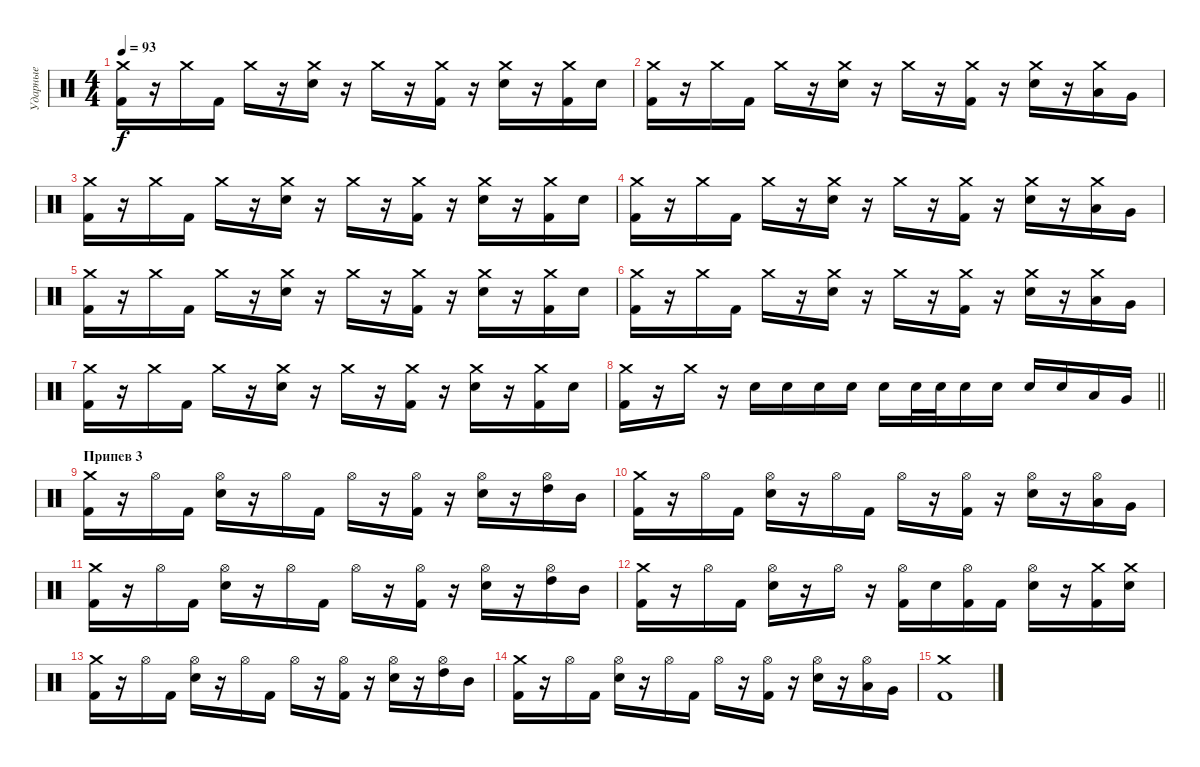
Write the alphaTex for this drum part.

\track ("Ударные" "Ударные") {instrument percussion}
\staff {score}
\articulation defaults
\ts (4 4)
\tempo 93
\clef neutral
\ks c
("Crash medium (hit)" "Kick (hit) 2").16{dy f} r.16 "Crash medium (hit)".16 "Kick (hit) 2".16 "Crash medium (hit)".16 r.16 ("Crash medium (hit)" "Electric Snare (hit)").16 r.16 "Crash medium (hit)".16 r.16 ("Crash medium (hit)" "Kick (hit) 2").16 r.16 ("Crash medium (hit)" "Electric Snare (hit)").16 r.16 ("Crash medium (hit)" "Kick (hit) 2").16 "Electric Snare (hit)".16 |
("Crash medium (hit)" "Kick (hit) 2").16 r.16 "Crash medium (hit)".16 "Kick (hit) 2".16 "Crash medium (hit)".16 r.16 ("Crash medium (hit)" "Electric Snare (hit)").16 r.16 "Crash medium (hit)".16 r.16 ("Crash medium (hit)" "Kick (hit) 2").16 r.16 ("Crash medium (hit)" "Electric Snare (hit)").16 r.16 ("Crash medium (hit)" "Low Tom (hit)").16 "Very Low Tom (hit)".16 |
("Crash medium (hit)" "Kick (hit) 2").16 r.16 "Crash medium (hit)".16 "Kick (hit) 2".16 "Crash medium (hit)".16 r.16 ("Crash medium (hit)" "Electric Snare (hit)").16 r.16 "Crash medium (hit)".16 r.16 ("Crash medium (hit)" "Kick (hit) 2").16 r.16 ("Crash medium (hit)" "Electric Snare (hit)").16 r.16 ("Crash medium (hit)" "Kick (hit) 2").16 "Electric Snare (hit)".16 |
("Crash medium (hit)" "Kick (hit) 2").16 r.16 "Crash medium (hit)".16 "Kick (hit) 2".16 "Crash medium (hit)".16 r.16 ("Crash medium (hit)" "Electric Snare (hit)").16 r.16 "Crash medium (hit)".16 r.16 ("Crash medium (hit)" "Kick (hit) 2").16 r.16 ("Crash medium (hit)" "Electric Snare (hit)").16 r.16 ("Crash medium (hit)" "Low Tom (hit)").16 "Very Low Tom (hit)".16 |
("Crash medium (hit)" "Kick (hit) 2").16 r.16 "Crash medium (hit)".16 "Kick (hit) 2".16 "Crash medium (hit)".16 r.16 ("Crash medium (hit)" "Electric Snare (hit)").16 r.16 "Crash medium (hit)".16 r.16 ("Crash medium (hit)" "Kick (hit) 2").16 r.16 ("Crash medium (hit)" "Electric Snare (hit)").16 r.16 ("Crash medium (hit)" "Kick (hit) 2").16 "Electric Snare (hit)".16 |
("Crash medium (hit)" "Kick (hit) 2").16 r.16 "Crash medium (hit)".16 "Kick (hit) 2".16 "Crash medium (hit)".16 r.16 ("Crash medium (hit)" "Electric Snare (hit)").16 r.16 "Crash medium (hit)".16 r.16 ("Crash medium (hit)" "Kick (hit) 2").16 r.16 ("Crash medium (hit)" "Electric Snare (hit)").16 r.16 ("Crash medium (hit)" "Low Tom (hit)").16 "Very Low Tom (hit)".16 |
("Crash medium (hit)" "Kick (hit) 2").16 r.16 "Crash medium (hit)".16 "Kick (hit) 2".16 "Crash medium (hit)".16 r.16 ("Crash medium (hit)" "Electric Snare (hit)").16 r.16 "Crash medium (hit)".16 r.16 ("Crash medium (hit)" "Kick (hit) 2").16 r.16 ("Crash medium (hit)" "Electric Snare (hit)").16 r.16 ("Crash medium (hit)" "Kick (hit) 2").16 "Electric Snare (hit)".16 |
\barLineRight lightlight
("Crash medium (hit)" "Kick (hit) 2").16 r.16 "Crash medium (hit)".16 r.16 "Electric Snare (hit)".16 "Electric Snare (hit)".16 "Electric Snare (hit)".16 "Electric Snare (hit)".16 "Electric Snare (hit)".16 "Electric Snare (hit)".32 "Electric Snare (hit)".32 "Electric Snare (hit)".16 "Electric Snare (hit)".16 "Electric Snare (hit)".16 "Electric Snare (hit)".16 "Low Tom (hit)".16 "Very Low Tom (hit)".16 |
\section ("" "Припев 3")
("Crash medium (hit)" "Kick (hit) 2").16 r.16 "Hi-Hat (open)".16 "Kick (hit) 2".16 ("Hi-Hat (open)" "Electric Snare (hit)").16 r.16 "Hi-Hat (open)".16 "Kick (hit) 2".16 "Hi-Hat (open)".16 r.16 ("Hi-Hat (open)" "Kick (hit) 2").16 r.16 ("Hi-Hat (open)" "Electric Snare (hit)").16 r.16 ("Hi-Hat (open)" "High Tom (hit)").16 "Mid Tom (hit)".16 |
("Crash medium (hit)" "Kick (hit) 2").16 r.16 "Hi-Hat (open)".16 "Kick (hit) 2".16 ("Hi-Hat (open)" "Electric Snare (hit)").16 r.16 "Hi-Hat (open)".16 "Kick (hit) 2".16 "Hi-Hat (open)".16 r.16 ("Hi-Hat (open)" "Kick (hit) 2").16 r.16 ("Hi-Hat (open)" "Electric Snare (hit)").16 r.16 ("Hi-Hat (open)" "Low Tom (hit)").16 "Very Low Tom (hit)".16 |
("Crash medium (hit)" "Kick (hit) 2").16 r.16 "Hi-Hat (open)".16 "Kick (hit) 2".16 ("Hi-Hat (open)" "Electric Snare (hit)").16 r.16 "Hi-Hat (open)".16 "Kick (hit) 2".16 "Hi-Hat (open)".16 r.16 ("Hi-Hat (open)" "Kick (hit) 2").16 r.16 ("Hi-Hat (open)" "Electric Snare (hit)").16 r.16 ("Hi-Hat (open)" "High Tom (hit)").16 "Mid Tom (hit)".16 |
("Crash medium (hit)" "Kick (hit) 2").16 r.16 "Hi-Hat (open)".16 "Kick (hit) 2".16 ("Hi-Hat (open)" "Electric Snare (hit)").16 r.16 "Hi-Hat (open)".16 r.16 ("Hi-Hat (open)" "Kick (hit) 2").16 "Electric Snare (hit)".16 ("Hi-Hat (open)" "Kick (hit) 2").16 "Kick (hit) 2".16 ("Hi-Hat (open)" "Electric Snare (hit)").16 r.16 ("Crash medium (hit)" "Kick (hit) 2").16 ("Crash medium (hit)" "Electric Snare (hit)").16 |
("Crash medium (hit)" "Kick (hit) 2").16 r.16 "Hi-Hat (open)".16 "Kick (hit) 2".16 ("Hi-Hat (open)" "Electric Snare (hit)").16 r.16 "Hi-Hat (open)".16 "Kick (hit) 2".16 "Hi-Hat (open)".16 r.16 ("Hi-Hat (open)" "Kick (hit) 2").16 r.16 ("Hi-Hat (open)" "Electric Snare (hit)").16 r.16 ("Hi-Hat (open)" "High Tom (hit)").16 "Mid Tom (hit)".16 |
("Crash medium (hit)" "Kick (hit) 2").16 r.16 "Hi-Hat (open)".16 "Kick (hit) 2".16 ("Hi-Hat (open)" "Electric Snare (hit)").16 r.16 "Hi-Hat (open)".16 "Kick (hit) 2".16 "Hi-Hat (open)".16 r.16 ("Hi-Hat (open)" "Kick (hit) 2").16 r.16 ("Hi-Hat (open)" "Electric Snare (hit)").16 r.16 ("Hi-Hat (open)" "Low Tom (hit)").16 "Very Low Tom (hit)".16 |
("Crash medium (hit)" "Kick (hit) 2").1
